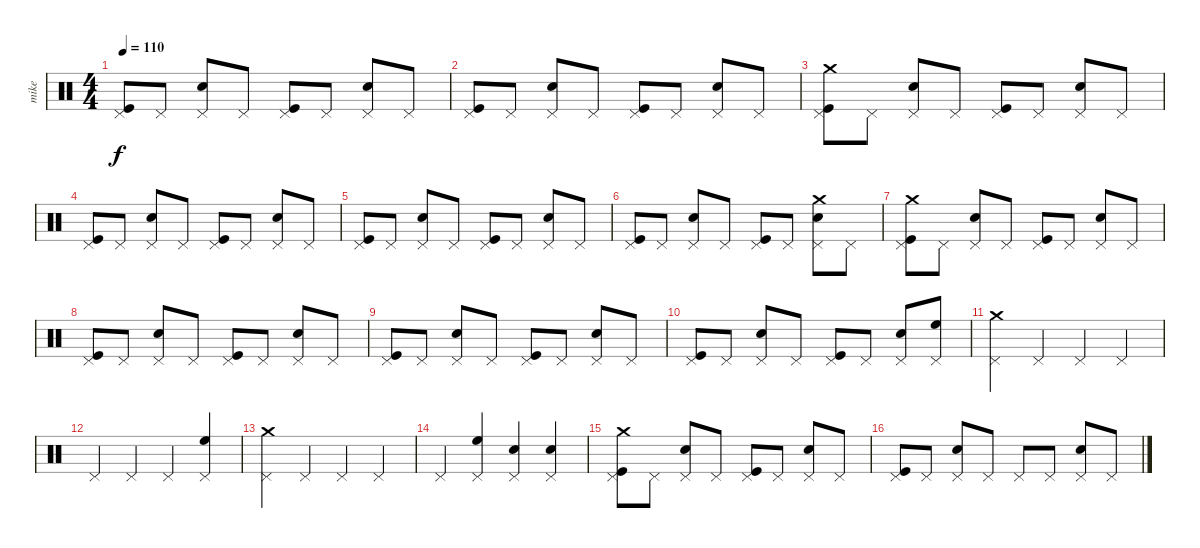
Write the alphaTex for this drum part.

\track ("mike" "mike") {instrument percussion}
\staff {score}
\articulation defaults
\ts (4 4)
\tempo 110
\clef neutral
\ks c
("Pedal Hi-Hat (hit)" "Kick (hit)").8{dy f} "Pedal Hi-Hat (hit)".8 ("Pedal Hi-Hat (hit)" "Electric Snare (hit)").8 "Pedal Hi-Hat (hit)".8 ("Pedal Hi-Hat (hit)" "Kick (hit)").8 "Pedal Hi-Hat (hit)".8 ("Pedal Hi-Hat (hit)" "Electric Snare (hit)").8 "Pedal Hi-Hat (hit)".8 |
("Pedal Hi-Hat (hit)" "Kick (hit)").8 "Pedal Hi-Hat (hit)".8 ("Pedal Hi-Hat (hit)" "Electric Snare (hit)").8 "Pedal Hi-Hat (hit)".8 ("Pedal Hi-Hat (hit)" "Kick (hit)").8 "Pedal Hi-Hat (hit)".8 ("Pedal Hi-Hat (hit)" "Electric Snare (hit)").8 "Pedal Hi-Hat (hit)".8 |
("Pedal Hi-Hat (hit)" "Kick (hit)" "Crash medium (hit)").8 "Pedal Hi-Hat (hit)".8 ("Pedal Hi-Hat (hit)" "Electric Snare (hit)").8 "Pedal Hi-Hat (hit)".8 ("Pedal Hi-Hat (hit)" "Kick (hit)").8 "Pedal Hi-Hat (hit)".8 ("Pedal Hi-Hat (hit)" "Electric Snare (hit)").8 "Pedal Hi-Hat (hit)".8 |
("Pedal Hi-Hat (hit)" "Kick (hit)").8 "Pedal Hi-Hat (hit)".8 ("Pedal Hi-Hat (hit)" "Electric Snare (hit)").8 "Pedal Hi-Hat (hit)".8 ("Pedal Hi-Hat (hit)" "Kick (hit)").8 "Pedal Hi-Hat (hit)".8 ("Pedal Hi-Hat (hit)" "Electric Snare (hit)").8 "Pedal Hi-Hat (hit)".8 |
("Pedal Hi-Hat (hit)" "Kick (hit)").8 "Pedal Hi-Hat (hit)".8 ("Pedal Hi-Hat (hit)" "Electric Snare (hit)").8 "Pedal Hi-Hat (hit)".8 ("Pedal Hi-Hat (hit)" "Kick (hit)").8 "Pedal Hi-Hat (hit)".8 ("Pedal Hi-Hat (hit)" "Electric Snare (hit)").8 "Pedal Hi-Hat (hit)".8 |
("Pedal Hi-Hat (hit)" "Kick (hit)").8 "Pedal Hi-Hat (hit)".8 ("Pedal Hi-Hat (hit)" "Electric Snare (hit)").8 "Pedal Hi-Hat (hit)".8 ("Pedal Hi-Hat (hit)" "Kick (hit)").8 "Pedal Hi-Hat (hit)".8 ("Pedal Hi-Hat (hit)" "Electric Snare (hit)" "Crash medium (hit)").8 "Pedal Hi-Hat (hit)".8 |
("Pedal Hi-Hat (hit)" "Kick (hit)" "Crash medium (hit)").8 "Pedal Hi-Hat (hit)".8 ("Pedal Hi-Hat (hit)" "Electric Snare (hit)").8 "Pedal Hi-Hat (hit)".8 ("Pedal Hi-Hat (hit)" "Kick (hit)").8 "Pedal Hi-Hat (hit)".8 ("Pedal Hi-Hat (hit)" "Electric Snare (hit)").8 "Pedal Hi-Hat (hit)".8 |
("Pedal Hi-Hat (hit)" "Kick (hit)").8 "Pedal Hi-Hat (hit)".8 ("Pedal Hi-Hat (hit)" "Electric Snare (hit)").8 "Pedal Hi-Hat (hit)".8 ("Pedal Hi-Hat (hit)" "Kick (hit)").8 "Pedal Hi-Hat (hit)".8 ("Pedal Hi-Hat (hit)" "Electric Snare (hit)").8 "Pedal Hi-Hat (hit)".8 |
("Pedal Hi-Hat (hit)" "Kick (hit)").8 "Pedal Hi-Hat (hit)".8 ("Pedal Hi-Hat (hit)" "Electric Snare (hit)").8 "Pedal Hi-Hat (hit)".8 ("Pedal Hi-Hat (hit)" "Kick (hit)").8 "Pedal Hi-Hat (hit)".8 ("Pedal Hi-Hat (hit)" "Electric Snare (hit)").8 "Pedal Hi-Hat (hit)".8 |
("Pedal Hi-Hat (hit)" "Kick (hit)").8 "Pedal Hi-Hat (hit)".8 ("Pedal Hi-Hat (hit)" "Electric Snare (hit)").8 "Pedal Hi-Hat (hit)".8 ("Pedal Hi-Hat (hit)" "Kick (hit)").8 "Pedal Hi-Hat (hit)".8 ("Pedal Hi-Hat (hit)" "Electric Snare (hit)").8 ("Pedal Hi-Hat (hit)" "High Floor Tom (hit)").8 |
("Pedal Hi-Hat (hit)" "Crash medium (hit)").4 "Pedal Hi-Hat (hit)".4 "Pedal Hi-Hat (hit)".4 "Pedal Hi-Hat (hit)".4 |
"Pedal Hi-Hat (hit)".4 "Pedal Hi-Hat (hit)".4 "Pedal Hi-Hat (hit)".4 ("Pedal Hi-Hat (hit)" "High Floor Tom (hit)").4 |
("Pedal Hi-Hat (hit)" "Crash medium (hit)").4 "Pedal Hi-Hat (hit)".4 "Pedal Hi-Hat (hit)".4 "Pedal Hi-Hat (hit)".4 |
"Pedal Hi-Hat (hit)".4 ("Pedal Hi-Hat (hit)" "High Floor Tom (hit)").4 ("Pedal Hi-Hat (hit)" "Electric Snare (hit)").4 ("Pedal Hi-Hat (hit)" "Electric Snare (hit)").4 |
("Pedal Hi-Hat (hit)" "Crash medium (hit)" "Kick (hit)").8 "Pedal Hi-Hat (hit)".8 ("Pedal Hi-Hat (hit)" "Electric Snare (hit)").8 "Pedal Hi-Hat (hit)".8 ("Pedal Hi-Hat (hit)" "Kick (hit)").8 "Pedal Hi-Hat (hit)".8 ("Pedal Hi-Hat (hit)" "Electric Snare (hit)").8 "Pedal Hi-Hat (hit)".8 |
("Pedal Hi-Hat (hit)" "Kick (hit)").8 "Pedal Hi-Hat (hit)".8 ("Pedal Hi-Hat (hit)" "Electric Snare (hit)").8 "Pedal Hi-Hat (hit)".8 "Pedal Hi-Hat (hit)".8 "Pedal Hi-Hat (hit)".8 ("Pedal Hi-Hat (hit)" "Electric Snare (hit)").8 "Pedal Hi-Hat (hit)".8
